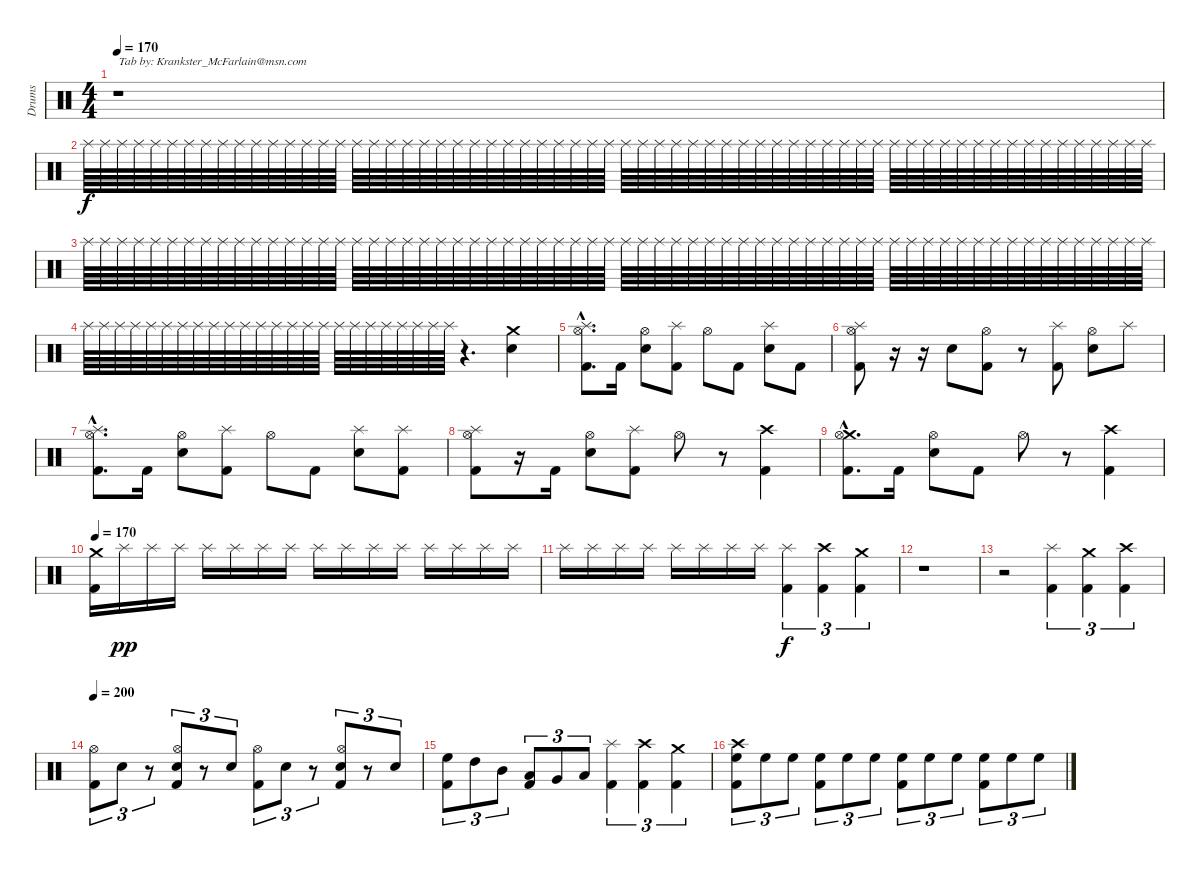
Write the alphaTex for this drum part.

\track ("Drums" "Drums") {instrument percussion}
\staff {score}
\articulation defaults
\ts (4 4)
\tempo 170
\tempo 155
\tempo 170
\clef neutral
\ks c
r.1{txt "Tab by: Krankster_McFarlain@msn.com" dy f volume 0} |
"Splash (hit)".64{volume 16} "Splash (hit)".64 "Splash (hit)".64 "Splash (hit)".64 "Splash (hit)".64 "Splash (hit)".64 "Splash (hit)".64 "Splash (hit)".64 "Splash (hit)".64 "Splash (hit)".64 "Splash (hit)".64 "Splash (hit)".64 "Splash (hit)".64 "Splash (hit)".64 "Splash (hit)".64 "Splash (hit)".64 "Splash (hit)".64 "Splash (hit)".64 "Splash (hit)".64 "Splash (hit)".64 "Splash (hit)".64 "Splash (hit)".64 "Splash (hit)".64 "Splash (hit)".64 "Splash (hit)".64 "Splash (hit)".64 "Splash (hit)".64 "Splash (hit)".64 "Splash (hit)".64 "Splash (hit)".64 "Splash (hit)".64 "Splash (hit)".64 "Splash (hit)".64 "Splash (hit)".64 "Splash (hit)".64 "Splash (hit)".64 "Splash (hit)".64 "Splash (hit)".64 "Splash (hit)".64 "Splash (hit)".64 "Splash (hit)".64 "Splash (hit)".64 "Splash (hit)".64 "Splash (hit)".64 "Splash (hit)".64 "Splash (hit)".64 "Splash (hit)".64 "Splash (hit)".64 "Splash (hit)".64 "Splash (hit)".64 "Splash (hit)".64 "Splash (hit)".64 "Splash (hit)".64 "Splash (hit)".64 "Splash (hit)".64 "Splash (hit)".64 "Splash (hit)".64 "Splash (hit)".64 "Splash (hit)".64 "Splash (hit)".64 "Splash (hit)".64 "Splash (hit)".64 "Splash (hit)".64 "Splash (hit)".64 |
"Splash (hit)".64 "Splash (hit)".64 "Splash (hit)".64 "Splash (hit)".64 "Splash (hit)".64 "Splash (hit)".64 "Splash (hit)".64 "Splash (hit)".64 "Splash (hit)".64 "Splash (hit)".64 "Splash (hit)".64 "Splash (hit)".64 "Splash (hit)".64 "Splash (hit)".64 "Splash (hit)".64 "Splash (hit)".64 "Splash (hit)".64 "Splash (hit)".64 "Splash (hit)".64 "Splash (hit)".64 "Splash (hit)".64 "Splash (hit)".64 "Splash (hit)".64 "Splash (hit)".64 "Splash (hit)".64 "Splash (hit)".64 "Splash (hit)".64 "Splash (hit)".64 "Splash (hit)".64 "Splash (hit)".64 "Splash (hit)".64 "Splash (hit)".64 "Splash (hit)".64 "Splash (hit)".64 "Splash (hit)".64 "Splash (hit)".64 "Splash (hit)".64 "Splash (hit)".64 "Splash (hit)".64 "Splash (hit)".64 "Splash (hit)".64 "Splash (hit)".64 "Splash (hit)".64 "Splash (hit)".64 "Splash (hit)".64 "Splash (hit)".64 "Splash (hit)".64 "Splash (hit)".64 "Splash (hit)".64 "Splash (hit)".64 "Splash (hit)".64 "Splash (hit)".64 "Splash (hit)".64 "Splash (hit)".64 "Splash (hit)".64 "Splash (hit)".64 "Splash (hit)".64 "Splash (hit)".64 "Splash (hit)".64 "Splash (hit)".64 "Splash (hit)".64 "Splash (hit)".64 "Splash (hit)".64 "Splash (hit)".64 |
"Splash (hit)".64 "Splash (hit)".64 "Splash (hit)".64 "Splash (hit)".64 "Splash (hit)".64 "Splash (hit)".64 "Splash (hit)".64 "Splash (hit)".64 "Splash (hit)".64 "Splash (hit)".64 "Splash (hit)".64 "Splash (hit)".64 "Splash (hit)".64 "Splash (hit)".64 "Splash (hit)".64 "Splash (hit)".64 "Splash (hit)".64 "Splash (hit)".64 "Splash (hit)".64 "Splash (hit)".64 "Splash (hit)".64 "Splash (hit)".64 "Splash (hit)".64 "Splash (hit)".64 r.4{d} ("Crash medium (hit)" "Snare (hit) 2").4 |
("Splash (hit)"{hac} "Hi-Hat (open)"{hac} "Kick (hit) 2"{hac}).8{d volume 16} "Kick (hit) 2".16 ("Hi-Hat (open)" "Snare (hit) 2").8 ("Splash (hit)" "Kick (hit) 2").8 "Hi-Hat (open)".8 "Kick (hit) 2".8 ("Splash (hit)" "Snare (hit) 2").8 "Kick (hit) 2".8 |
("Splash (hit)" "Hi-Hat (open)" "Kick (hit) 2").8 r.16 r.16 "Snare (hit) 2".8 ("Hi-Hat (open)" "Kick (hit) 2").8 r.8 ("Splash (hit)" "Kick (hit) 2").8 ("Hi-Hat (open)" "Snare (hit) 2").8 "Splash (hit)".8 |
("Splash (hit)"{hac} "Hi-Hat (open)"{hac} "Kick (hit) 2"{hac}).8{d} "Kick (hit) 2".16 ("Hi-Hat (open)" "Snare (hit) 2").8 ("Splash (hit)" "Kick (hit) 2").8 "Hi-Hat (open)".8 "Kick (hit) 2".8 ("Splash (hit)" "Snare (hit) 2").8 ("Splash (hit)" "Kick (hit) 2").8 |
("Splash (hit)" "Hi-Hat (open)" "Kick (hit) 2").8 r.16 "Kick (hit) 2".16 ("Hi-Hat (open)" "Snare (hit) 2").8 ("Splash (hit)" "Kick (hit) 2").8 "Hi-Hat (open)".8 r.8 ("Crash high (hit)" "Kick (hit) 2").4 |
("Crash medium (hit)"{hac} "Hi-Hat (open)"{hac} "Kick (hit) 2"{hac}).8{d} "Kick (hit) 2".16 ("Hi-Hat (open)" "Snare (hit) 2").8 "Kick (hit) 2".8 "Hi-Hat (open)".8 r.8 ("Crash high (hit)" "Kick (hit) 2").4 |
\tempo 170
("Crash medium (hit)" "Kick (hit) 2").16 "Splash (hit)".16{dy pp} "Splash (hit)".16 "Splash (hit)".16 "Splash (hit)".16 "Splash (hit)".16 "Splash (hit)".16 "Splash (hit)".16 "Splash (hit)".16 "Splash (hit)".16 "Splash (hit)".16 "Splash (hit)".16 "Splash (hit)".16 "Splash (hit)".16 "Splash (hit)".16 "Splash (hit)".16 |
"Splash (hit)".16 "Splash (hit)".16 "Splash (hit)".16 "Splash (hit)".16 "Splash (hit)".16 "Splash (hit)".16 "Splash (hit)".16 "Splash (hit)".16 ("Splash (hit)" "Kick (hit) 2").4{tu (3 2) dy f} ("Crash high (hit)" "Kick (hit) 2").4{tu (3 2)} ("Crash medium (hit)" "Kick (hit) 2").4{tu (3 2)} |
r.1 |
r.2 ("Splash (hit)" "Kick (hit) 2").4{tu (3 2)} ("Crash medium (hit)" "Kick (hit) 2").4{tu (3 2)} ("Crash high (hit)" "Kick (hit) 2").4{tu (3 2)} |
\tempo 200
("Hi-Hat (open)" "Kick (hit) 2").8{tu (3 2)} "Snare (hit) 2".8{tu (3 2)} r.8{tu (3 2)} ("Hi-Hat (open)" "Snare (hit) 2" "Kick (hit) 2").8{tu (3 2)} r.8{tu (3 2)} "Snare (hit) 2".8{tu (3 2)} ("Hi-Hat (open)" "Kick (hit) 2").8{tu (3 2)} "Snare (hit) 2".8{tu (3 2)} r.8{tu (3 2)} ("Hi-Hat (open)" "Snare (hit) 2" "Kick (hit) 2").8{tu (3 2)} r.8{tu (3 2)} "Snare (hit) 2".8{tu (3 2)} |
("High Floor Tom (hit)" "Kick (hit) 2").8{tu (3 2)} "High Tom (hit)".8{tu (3 2)} "Mid Tom (hit)".8{tu (3 2)} ("Low Tom (hit)" "Kick (hit) 2").8{tu (3 2)} "Very Low Tom (hit)".8{tu (3 2)} "Low Floor Tom (hit)".8{tu (3 2)} ("Splash (hit)" "Kick (hit) 2").4{tu (3 2)} ("Crash high (hit)" "Kick (hit) 2").4{tu (3 2)} ("Crash medium (hit)" "Kick (hit) 2").4{tu (3 2)} |
("Crash high (hit)" "High Floor Tom (hit)" "Kick (hit) 2").8{tu (3 2)} "High Floor Tom (hit)".8{tu (3 2)} "High Floor Tom (hit)".8{tu (3 2)} ("High Floor Tom (hit)" "Kick (hit) 2").8{tu (3 2)} "High Floor Tom (hit)".8{tu (3 2)} "High Floor Tom (hit)".8{tu (3 2)} ("High Floor Tom (hit)" "Kick (hit) 2").8{tu (3 2)} "High Floor Tom (hit)".8{tu (3 2)} "High Floor Tom (hit)".8{tu (3 2)} ("High Floor Tom (hit)" "Kick (hit) 2").8{tu (3 2)} "High Floor Tom (hit)".8{tu (3 2)} "High Floor Tom (hit)".8{tu (3 2)}
